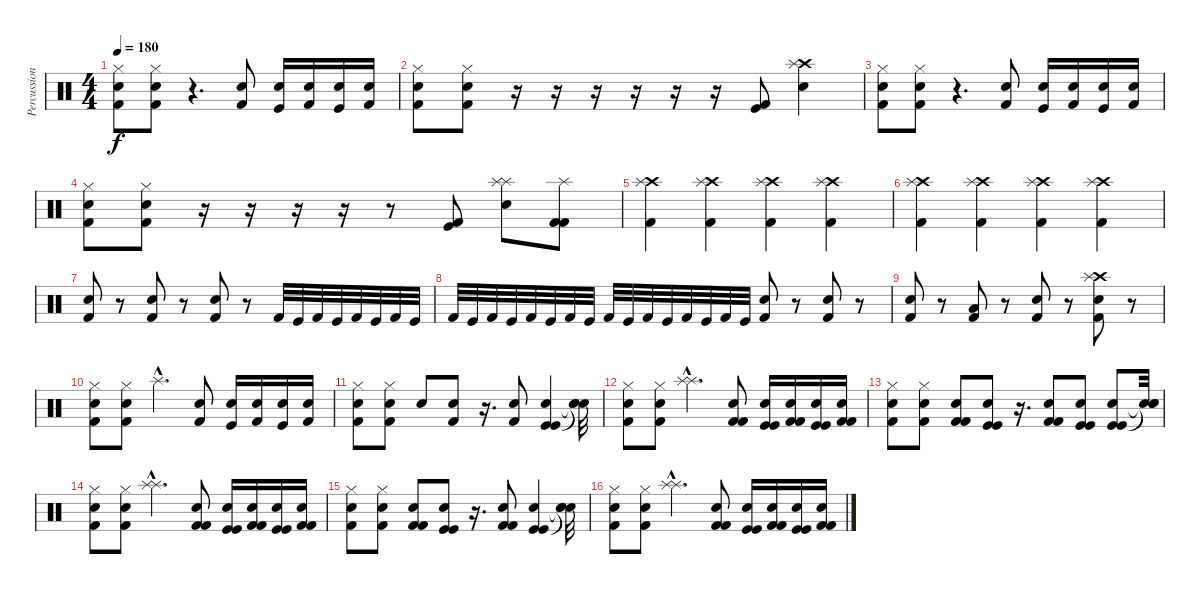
\track ("Percussion" "Percussion") {instrument percussion}
\staff {score}
\articulation defaults
\ts (4 4)
\tempo 180
\clef neutral
\ks c
("Hi-Hat (closed)" "Electric Snare (hit)" "Kick (hit) 2").8{dy f} ("Hi-Hat (closed)" "Electric Snare (hit)" "Kick (hit) 2").8 r.4{d} ("Electric Snare (hit)" "Kick (hit) 2").8 ("Electric Snare (hit)" "Kick (hit)").16 ("Electric Snare (hit)" "Kick (hit) 2").16 ("Electric Snare (hit)" "Kick (hit)").16 ("Electric Snare (hit)" "Kick (hit) 2").16 |
("Hi-Hat (closed)" "Electric Snare (hit)" "Kick (hit) 2").8 ("Hi-Hat (closed)" "Electric Snare (hit)" "Kick (hit) 2").8 r.16 r.16 r.16 r.16 r.16 r.16 ("Kick (hit)" "Kick (hit) 2").8 ("Electric Snare (hit)" "Crash high (hit)" "Splash (hit)").4 |
("Hi-Hat (closed)" "Electric Snare (hit)" "Kick (hit) 2").8 ("Hi-Hat (closed)" "Electric Snare (hit)" "Kick (hit) 2").8 r.4{d} ("Electric Snare (hit)" "Kick (hit) 2").8 ("Electric Snare (hit)" "Kick (hit)").16 ("Electric Snare (hit)" "Kick (hit) 2").16 ("Electric Snare (hit)" "Kick (hit)").16 ("Electric Snare (hit)" "Kick (hit) 2").16 |
("Hi-Hat (closed)" "Electric Snare (hit)" "Kick (hit) 2").8 ("Hi-Hat (closed)" "Electric Snare (hit)" "Kick (hit) 2").8 r.16 r.16 r.16 r.16 r.8 ("Kick (hit)" "Kick (hit) 2").8 ("Splash (hit)" "Electric Snare (hit)" "Splash (hit)").8 ("Splash (hit)" "Kick (hit) 2" "Kick (hit) 2").8 |
("Crash high (hit)" "Splash (hit)" "Kick (hit) 2").4 ("Crash high (hit)" "Splash (hit)" "Kick (hit) 2").4 ("Crash high (hit)" "Splash (hit)" "Kick (hit) 2").4 ("Crash high (hit)" "Splash (hit)" "Kick (hit) 2").4 |
("Crash high (hit)" "Splash (hit)" "Kick (hit) 2").4 ("Crash high (hit)" "Splash (hit)" "Kick (hit) 2").4 ("Crash high (hit)" "Splash (hit)" "Kick (hit) 2").4 ("Crash high (hit)" "Splash (hit)" "Kick (hit) 2").4 |
("Electric Snare (hit)" "Kick (hit) 2").8 r.8 ("Electric Snare (hit)" "Kick (hit) 2").8 r.8 ("Electric Snare (hit)" "Kick (hit) 2").8 r.8 "Kick (hit) 2".32 "Kick (hit)".32 "Kick (hit) 2".32 "Kick (hit)".32 "Kick (hit) 2".32 "Kick (hit)".32 "Kick (hit) 2".32 "Kick (hit)".32 |
"Kick (hit) 2".32 "Kick (hit)".32 "Kick (hit) 2".32 "Kick (hit)".32 "Kick (hit) 2".32 "Kick (hit)".32 "Kick (hit) 2".32 "Kick (hit)".32 "Kick (hit) 2".32 "Kick (hit)".32 "Kick (hit) 2".32 "Kick (hit)".32 "Kick (hit) 2".32 "Kick (hit)".32 "Kick (hit) 2".32 "Kick (hit)".32 ("Kick (hit) 2" "Electric Snare (hit)").8 r.8 ("Kick (hit) 2" "Electric Snare (hit)").8 r.8 |
("Electric Snare (hit)" "Kick (hit) 2").8 r.8 ("Low Tom (hit)" "Kick (hit) 2").8 r.8 ("Kick (hit) 2" "Electric Snare (hit)").8 r.8 ("Crash high (hit)" "Splash (hit)" "Kick (hit) 2" "Electric Snare (hit)").8 r.8 |
("Hi-Hat (closed)" "Electric Snare (hit)" "Kick (hit) 2").8 ("Hi-Hat (closed)" "Electric Snare (hit)" "Kick (hit) 2").8 "Splash (hit)"{hac}.4{d} ("Electric Snare (hit)" "Kick (hit) 2").8 ("Electric Snare (hit)" "Kick (hit)").16 ("Electric Snare (hit)" "Kick (hit) 2").16 ("Electric Snare (hit)" "Kick (hit)").16 ("Electric Snare (hit)" "Kick (hit) 2").16 |
("Hi-Hat (closed)" "Electric Snare (hit)" "Kick (hit) 2").8 ("Hi-Hat (closed)" "Electric Snare (hit)" "Kick (hit) 2").8 "Electric Snare (hit)".8 ("Electric Snare (hit)" "Kick (hit) 2").8 r.16{d} ("Electric Snare (hit)" "Kick (hit) 2").8 ("Kick (hit)" "Electric Snare (hit)" "Kick (hit)").4 ("Snare (hit)"{t} "Snare (hit)"{t} "Snare (hit)"{t}).32 |
("Hi-Hat (closed)" "Electric Snare (hit)" "Kick (hit) 2").8 ("Hi-Hat (closed)" "Electric Snare (hit)" "Kick (hit) 2").8 ("Splash (hit)"{hac} "Splash (hit)"{hac}).4{d} ("Kick (hit) 2" "Electric Snare (hit)" "Kick (hit) 2").8 ("Kick (hit)" "Electric Snare (hit)" "Kick (hit)").16 ("Kick (hit) 2" "Electric Snare (hit)" "Kick (hit) 2").16 ("Kick (hit)" "Electric Snare (hit)" "Kick (hit)").16 ("Kick (hit) 2" "Electric Snare (hit)" "Kick (hit) 2").16 |
("Hi-Hat (closed)" "Electric Snare (hit)" "Kick (hit) 2").8 ("Hi-Hat (closed)" "Electric Snare (hit)" "Kick (hit) 2").8 ("Kick (hit) 2" "Electric Snare (hit)" "Kick (hit) 2").8 ("Kick (hit)" "Electric Snare (hit)" "Kick (hit)").8 r.16{d} ("Kick (hit) 2" "Electric Snare (hit)" "Kick (hit) 2").8 ("Kick (hit)" "Electric Snare (hit)" "Kick (hit)").8 ("Kick (hit)" "Electric Snare (hit)" "Kick (hit)").8 ("Snare (hit)"{t} "Snare (hit)"{t} "Snare (hit)"{t}).32 |
("Hi-Hat (closed)" "Electric Snare (hit)" "Kick (hit) 2").8 ("Hi-Hat (closed)" "Electric Snare (hit)" "Kick (hit) 2").8 ("Splash (hit)"{hac} "Splash (hit)"{hac}).4{d} ("Kick (hit) 2" "Electric Snare (hit)" "Kick (hit) 2").8 ("Kick (hit)" "Electric Snare (hit)" "Kick (hit)").16 ("Kick (hit) 2" "Electric Snare (hit)" "Kick (hit) 2").16 ("Kick (hit)" "Electric Snare (hit)" "Kick (hit)").16 ("Kick (hit) 2" "Electric Snare (hit)" "Kick (hit) 2").16 |
("Hi-Hat (closed)" "Electric Snare (hit)" "Kick (hit) 2").8 ("Hi-Hat (closed)" "Electric Snare (hit)" "Kick (hit) 2").8 ("Kick (hit) 2" "Electric Snare (hit)" "Kick (hit) 2").8 ("Kick (hit)" "Electric Snare (hit)" "Kick (hit)").8 r.16{d} ("Kick (hit) 2" "Electric Snare (hit)" "Kick (hit) 2").8 ("Kick (hit)" "Electric Snare (hit)" "Kick (hit)").4 ("Snare (hit)"{t} "Snare (hit)"{t} "Snare (hit)"{t}).32 |
("Hi-Hat (closed)" "Electric Snare (hit)" "Kick (hit) 2").8 ("Hi-Hat (closed)" "Electric Snare (hit)" "Kick (hit) 2").8 ("Splash (hit)"{hac} "Splash (hit)"{hac}).4{d} ("Kick (hit) 2" "Electric Snare (hit)" "Kick (hit) 2").8 ("Kick (hit)" "Electric Snare (hit)" "Kick (hit)").16 ("Kick (hit) 2" "Electric Snare (hit)" "Kick (hit) 2").16 ("Kick (hit)" "Electric Snare (hit)" "Kick (hit)").16 ("Kick (hit) 2" "Electric Snare (hit)" "Kick (hit) 2").16
